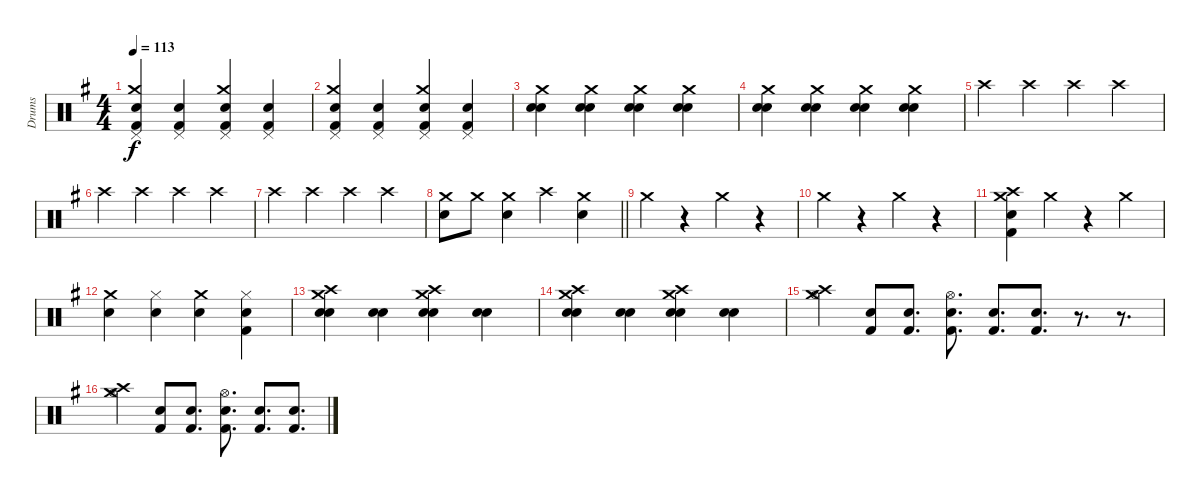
\track ("Drums" "Drums") {instrument percussion}
\staff {score}
\articulation defaults
\ts (4 4)
\tempo 113
\clef neutral
\ks g
("Kick (hit) 2" "Snare (hit) 2" "Crash medium (hit)" "Pedal Hi-Hat (hit)").4{dy f} ("Snare (hit) 2" "Kick (hit) 2" "Pedal Hi-Hat (hit)").4 ("Snare (hit) 2" "Kick (hit) 2" "Crash medium (hit)" "Pedal Hi-Hat (hit)").4 ("Snare (hit) 2" "Kick (hit) 2" "Pedal Hi-Hat (hit)").4 |
("Kick (hit) 2" "Snare (hit) 2" "Crash medium (hit)" "Pedal Hi-Hat (hit)").4 ("Snare (hit) 2" "Kick (hit) 2" "Pedal Hi-Hat (hit)").4 ("Snare (hit) 2" "Kick (hit) 2" "Crash medium (hit)" "Pedal Hi-Hat (hit)").4 ("Snare (hit) 2" "Kick (hit) 2" "Pedal Hi-Hat (hit)").4 |
("Snare (hit) 2" "Snare (hit) 2" "Crash medium (hit)").4 ("Crash medium (hit)" "Snare (hit) 2" "Snare (hit) 2").4 ("Crash medium (hit)" "Snare (hit) 2" "Snare (hit) 2").4 ("Snare (hit) 2" "Snare (hit) 2" "Crash medium (hit)").4 |
("Snare (hit) 2" "Snare (hit) 2" "Crash medium (hit)").4 ("Crash medium (hit)" "Snare (hit) 2" "Snare (hit) 2").4 ("Crash medium (hit)" "Snare (hit) 2" "Snare (hit) 2").4 ("Snare (hit) 2" "Snare (hit) 2" "Crash medium (hit)").4 |
"Crash high (hit)".4 "Crash high (hit)".4 "Crash high (hit)".4 "Crash high (hit)".4 |
"Crash high (hit)".4 "Crash high (hit)".4 "Crash high (hit)".4 "Crash high (hit)".4 |
"Crash high (hit)".4 "Crash high (hit)".4 "Crash high (hit)".4 "Crash high (hit)".4 |
\barLineRight lightlight
("Crash medium (hit)" "Electric Snare (hit)").8 "Crash medium (hit)".8 ("Crash medium (hit)" "Electric Snare (hit)").4 "Crash high (hit)".4 ("Crash medium (hit)" "Electric Snare (hit)").4 |
"Crash medium (hit)".4 r.4 "Crash medium (hit)".4 r.4 |
"Crash medium (hit)".4 r.4 "Crash medium (hit)".4 r.4 |
("Crash medium (hit)" "Crash high (hit)" "Kick (hit) 2" "Snare (hit) 2").4 "Crash medium (hit)".4 r.4 "Crash medium (hit)".4 |
("Crash medium (hit)" "Electric Snare (hit)").4 ("Electric Snare (hit)" "Hi-Hat (closed)").4 ("Crash medium (hit)" "Electric Snare (hit)").4 ("Kick (hit) 2" "Snare (hit) 2" "Hi-Hat (closed)").4 |
("Crash high (hit)" "Crash medium (hit)" "Snare (hit) 2" "Electric Snare (hit)").4 ("Snare (hit) 2" "Electric Snare (hit)").4 ("Crash high (hit)" "Crash medium (hit)" "Snare (hit) 2" "Electric Snare (hit)").4 ("Electric Snare (hit)" "Snare (hit) 2").4 |
("Crash high (hit)" "Crash medium (hit)" "Snare (hit) 2" "Electric Snare (hit)").4 ("Snare (hit) 2" "Electric Snare (hit)").4 ("Crash high (hit)" "Crash medium (hit)" "Snare (hit) 2" "Electric Snare (hit)").4 ("Electric Snare (hit)" "Snare (hit) 2").4 |
("Crash high (hit)" "Crash medium (hit)" "Hi-Hat (open)").4 ("Kick (hit) 2" "Electric Snare (hit)").8 ("Kick (hit) 2" "Electric Snare (hit)").8{d} ("Hi-Hat (open)" "Kick (hit) 2" "Electric Snare (hit)").8{d} ("Kick (hit) 2" "Electric Snare (hit)").8{d} ("Kick (hit) 2" "Electric Snare (hit)").8{d} r.8{d} r.8{d} |
("Crash high (hit)" "Crash medium (hit)" "Hi-Hat (open)").4 ("Kick (hit) 2" "Electric Snare (hit)").8 ("Kick (hit) 2" "Electric Snare (hit)").8{d} ("Hi-Hat (open)" "Kick (hit) 2" "Electric Snare (hit)").8{d} ("Kick (hit) 2" "Electric Snare (hit)").8{d} ("Kick (hit) 2" "Electric Snare (hit)").8{d}
